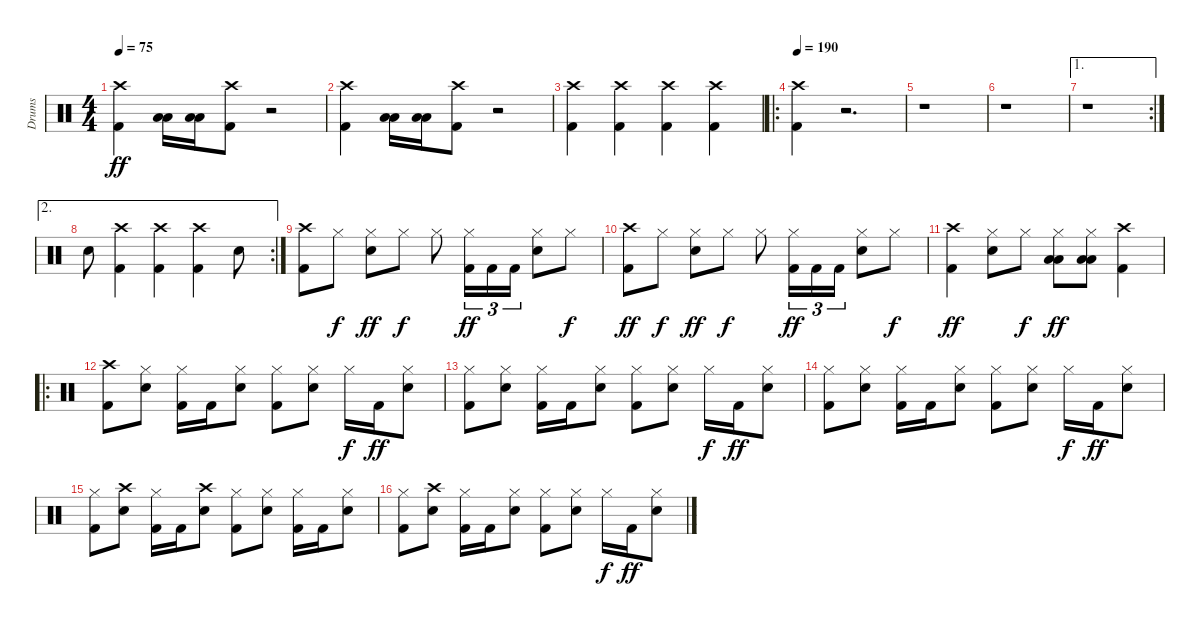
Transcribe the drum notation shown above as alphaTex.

\track ("Drums" "Drums") {instrument percussion}
\staff {score}
\articulation defaults
\ts (4 4)
\tempo 75
\clef neutral
\ks c
("Crash high (hit)" "Kick (hit) 2").4{dy ff} ("Low Tom (hit)" "Low Floor Tom (hit)").16 ("Low Tom (hit)" "Low Floor Tom (hit)").16 ("Crash high (hit)" "Kick (hit) 2").8 r.2 |
("Crash high (hit)" "Kick (hit) 2").4 ("Low Tom (hit)" "Low Floor Tom (hit)").16 ("Low Tom (hit)" "Low Floor Tom (hit)").16 ("Crash high (hit)" "Kick (hit) 2").8 r.2 |
("Crash high (hit)" "Kick (hit) 2").4 ("Crash high (hit)" "Kick (hit) 2").4 ("Crash high (hit)" "Kick (hit) 2").4 ("Crash high (hit)" "Kick (hit) 2").4 |
\ro
\tempo 190
("Crash high (hit)" "Kick (hit) 2").4 r.2{d} |
r.1 |
r.1 |
\ae 1
\rc 2
r.1 |
\ae 2
\rc 2 "Snare (hit) 2".8
("Crash high (hit)" "Kick (hit) 2").4 ("Crash high (hit)" "Kick (hit) 2").4 ("Crash high (hit)" "Kick (hit) 2").4 "Snare (hit) 2".8 |
("Crash high (hit)" "Kick (hit) 2").8 "Hi-Hat (closed)".8{dy f} ("Hi-Hat (closed)" "Snare (hit) 2").8{dy ff} "Hi-Hat (closed)".8{dy f} "Hi-Hat (closed)".8 ("Hi-Hat (closed)" "Kick (hit) 2").16{tu (3 2) dy ff} "Kick (hit) 2".16{tu (3 2)} "Kick (hit) 2".16{tu (3 2)} ("Hi-Hat (closed)" "Snare (hit) 2").8 "Hi-Hat (closed)".8{dy f} |
("Crash high (hit)" "Kick (hit) 2").8{dy ff} "Hi-Hat (closed)".8{dy f} ("Hi-Hat (closed)" "Snare (hit) 2").8{dy ff} "Hi-Hat (closed)".8{dy f} "Hi-Hat (closed)".8 ("Hi-Hat (closed)" "Kick (hit) 2").16{tu (3 2) dy ff} "Kick (hit) 2".16{tu (3 2)} "Kick (hit) 2".16{tu (3 2)} ("Hi-Hat (closed)" "Snare (hit) 2").8 "Hi-Hat (closed)".8{dy f} |
("Crash high (hit)" "Kick (hit) 2").4{dy ff} ("Hi-Hat (closed)" "Snare (hit) 2").8 "Hi-Hat (closed)".8{dy f} ("Hi-Hat (closed)" "Low Tom (hit)" "Low Floor Tom (hit)").8{dy ff} ("Hi-Hat (closed)" "Low Tom (hit)" "Low Floor Tom (hit)").8 ("Crash high (hit)" "Kick (hit) 2").4 |
\ro
("Crash high (hit)" "Kick (hit) 2").8 ("Hi-Hat (closed)" "Snare (hit) 2").8 ("Hi-Hat (closed)" "Kick (hit) 2").16 "Kick (hit) 2".16 ("Hi-Hat (closed)" "Snare (hit) 2").8 ("Hi-Hat (closed)" "Kick (hit) 2").8 ("Hi-Hat (closed)" "Snare (hit) 2").8 "Hi-Hat (closed)".16{dy f} "Kick (hit) 2".16{dy ff} ("Hi-Hat (closed)" "Snare (hit) 2").8 |
("Hi-Hat (closed)" "Kick (hit) 2").8 ("Hi-Hat (closed)" "Snare (hit) 2").8 ("Hi-Hat (closed)" "Kick (hit) 2").16 "Kick (hit) 2".16 ("Hi-Hat (closed)" "Snare (hit) 2").8 ("Hi-Hat (closed)" "Kick (hit) 2").8 ("Hi-Hat (closed)" "Snare (hit) 2").8 "Hi-Hat (closed)".16{dy f} "Kick (hit) 2".16{dy ff} ("Hi-Hat (closed)" "Snare (hit) 2").8 |
("Hi-Hat (closed)" "Kick (hit) 2").8 ("Hi-Hat (closed)" "Snare (hit) 2").8 ("Hi-Hat (closed)" "Kick (hit) 2").16 "Kick (hit) 2".16 ("Hi-Hat (closed)" "Snare (hit) 2").8 ("Hi-Hat (closed)" "Kick (hit) 2").8 ("Hi-Hat (closed)" "Snare (hit) 2").8 "Hi-Hat (closed)".16{dy f} "Kick (hit) 2".16{dy ff} ("Hi-Hat (closed)" "Snare (hit) 2").8 |
("Hi-Hat (closed)" "Kick (hit) 2").8 ("Crash high (hit)" "Snare (hit) 2").8 ("Hi-Hat (closed)" "Kick (hit) 2").16 "Kick (hit) 2".16 ("Crash high (hit)" "Snare (hit) 2").8 ("Hi-Hat (closed)" "Kick (hit) 2").8 ("Hi-Hat (closed)" "Snare (hit) 2").8 ("Hi-Hat (closed)" "Kick (hit) 2").16 "Kick (hit) 2".16 ("Hi-Hat (closed)" "Snare (hit) 2").8 |
("Hi-Hat (closed)" "Kick (hit) 2").8 ("Crash high (hit)" "Snare (hit) 2").8 ("Hi-Hat (closed)" "Kick (hit) 2").16 "Kick (hit) 2".16 ("Hi-Hat (closed)" "Snare (hit) 2").8 ("Hi-Hat (closed)" "Kick (hit) 2").8 ("Hi-Hat (closed)" "Snare (hit) 2").8 "Hi-Hat (closed)".16{dy f} "Kick (hit) 2".16{dy ff} ("Hi-Hat (closed)" "Snare (hit) 2").8
